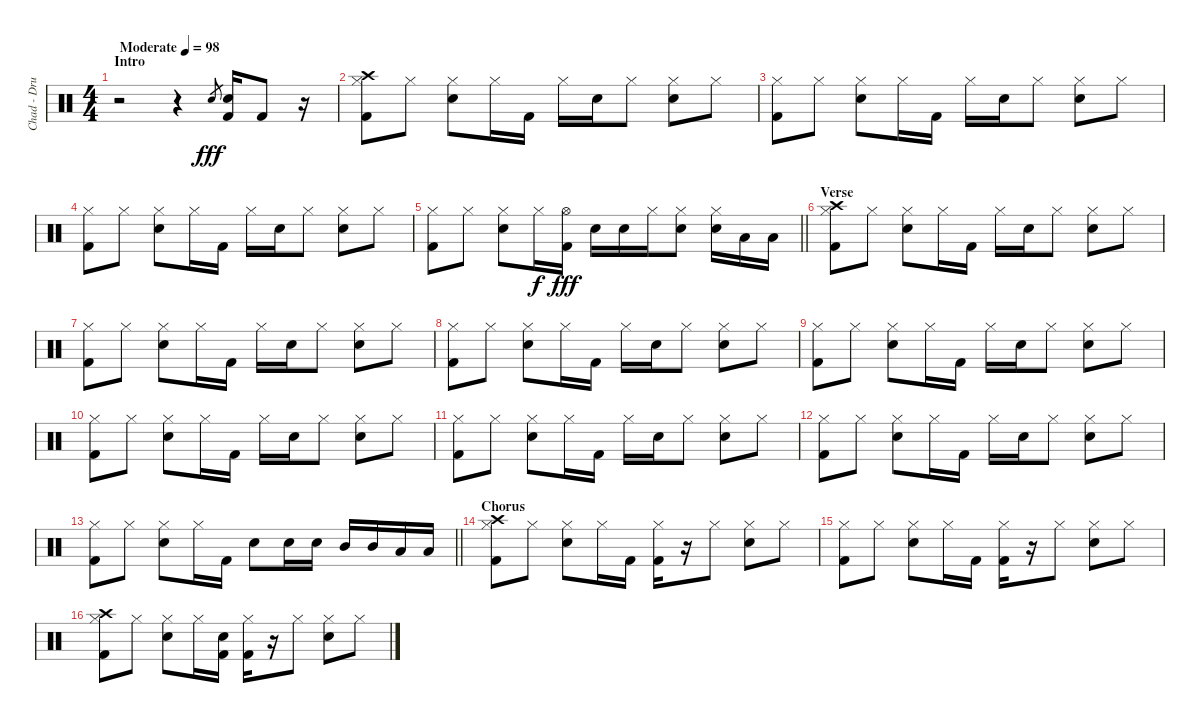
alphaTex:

\track ("Chad - Drums" "Chad - Dru") {instrument percussion}
\staff {score}
\articulation defaults
\ts (4 4)
\section ("" "Intro")
\tempo (98 "Moderate")
\clef neutral
\ks c
r.2{dy fff} r.4 "Snare (hit) 2".8{gr} ("Snare (hit) 2" "Kick (hit) 2").16 "Kick (hit) 2".8 r.16 |
("Hi-Hat (closed)" "Crash high (hit)" "Kick (hit) 2").8 "Hi-Hat (closed)".8 ("Snare (hit) 2" "Hi-Hat (closed)").8 "Hi-Hat (closed)".16 "Kick (hit) 2".16 "Hi-Hat (closed)".16 "Snare (hit) 2".16 "Hi-Hat (closed)".8 ("Snare (hit) 2" "Hi-Hat (closed)").8 "Hi-Hat (closed)".8 |
("Hi-Hat (closed)" "Kick (hit) 2").8 "Hi-Hat (closed)".8 ("Snare (hit) 2" "Hi-Hat (closed)").8 "Hi-Hat (closed)".16 "Kick (hit) 2".16 "Hi-Hat (closed)".16 "Snare (hit) 2".16 "Hi-Hat (closed)".8 ("Snare (hit) 2" "Hi-Hat (closed)").8 "Hi-Hat (closed)".8 |
("Hi-Hat (closed)" "Kick (hit) 2").8 "Hi-Hat (closed)".8 ("Snare (hit) 2" "Hi-Hat (closed)").8 "Hi-Hat (closed)".16 "Kick (hit) 2".16 "Hi-Hat (closed)".16 "Snare (hit) 2".16 "Hi-Hat (closed)".8 ("Snare (hit) 2" "Hi-Hat (closed)").8 "Hi-Hat (closed)".8 |
\barLineRight lightlight
("Hi-Hat (closed)" "Kick (hit) 2").8 "Hi-Hat (closed)".8 ("Snare (hit) 2" "Hi-Hat (closed)").8 "Hi-Hat (closed)".16{dy f} ("Hi-Hat (open)" "Kick (hit) 2").16{dy fff} "Snare (hit) 2".16 "Snare (hit) 2".16 "Hi-Hat (closed)".16 ("Snare (hit) 2" "Hi-Hat (closed)").8 ("Snare (hit) 2" "Hi-Hat (closed)").16 "Low Tom (hit)".16 "Low Tom (hit)".16 |
\section ("" "Verse")
("Hi-Hat (closed)" "Crash high (hit)" "Kick (hit) 2").8 "Hi-Hat (closed)".8 ("Snare (hit) 2" "Hi-Hat (closed)").8 "Hi-Hat (closed)".16 "Kick (hit) 2".16 "Hi-Hat (closed)".16 "Snare (hit) 2".16 "Hi-Hat (closed)".8 ("Snare (hit) 2" "Hi-Hat (closed)").8 "Hi-Hat (closed)".8 |
("Hi-Hat (closed)" "Kick (hit) 2").8 "Hi-Hat (closed)".8 ("Snare (hit) 2" "Hi-Hat (closed)").8 "Hi-Hat (closed)".16 "Kick (hit) 2".16 "Hi-Hat (closed)".16 "Snare (hit) 2".16 "Hi-Hat (closed)".8 ("Snare (hit) 2" "Hi-Hat (closed)").8 "Hi-Hat (closed)".8 |
("Hi-Hat (closed)" "Kick (hit) 2").8 "Hi-Hat (closed)".8 ("Snare (hit) 2" "Hi-Hat (closed)").8 "Hi-Hat (closed)".16 "Kick (hit) 2".16 "Hi-Hat (closed)".16 "Snare (hit) 2".16 "Hi-Hat (closed)".8 ("Snare (hit) 2" "Hi-Hat (closed)").8 "Hi-Hat (closed)".8 |
("Hi-Hat (closed)" "Kick (hit) 2").8 "Hi-Hat (closed)".8 ("Snare (hit) 2" "Hi-Hat (closed)").8 "Hi-Hat (closed)".16 "Kick (hit) 2".16 "Hi-Hat (closed)".16 "Snare (hit) 2".16 "Hi-Hat (closed)".8 ("Snare (hit) 2" "Hi-Hat (closed)").8 "Hi-Hat (closed)".8 |
("Hi-Hat (closed)" "Kick (hit) 2").8 "Hi-Hat (closed)".8 ("Snare (hit) 2" "Hi-Hat (closed)").8 "Hi-Hat (closed)".16 "Kick (hit) 2".16 "Hi-Hat (closed)".16 "Snare (hit) 2".16 "Hi-Hat (closed)".8 ("Snare (hit) 2" "Hi-Hat (closed)").8 "Hi-Hat (closed)".8 |
("Hi-Hat (closed)" "Kick (hit) 2").8 "Hi-Hat (closed)".8 ("Snare (hit) 2" "Hi-Hat (closed)").8 "Hi-Hat (closed)".16 "Kick (hit) 2".16 "Hi-Hat (closed)".16 "Snare (hit) 2".16 "Hi-Hat (closed)".8 ("Snare (hit) 2" "Hi-Hat (closed)").8 "Hi-Hat (closed)".8 |
("Hi-Hat (closed)" "Kick (hit) 2").8 "Hi-Hat (closed)".8 ("Snare (hit) 2" "Hi-Hat (closed)").8 "Hi-Hat (closed)".16 "Kick (hit) 2".16 "Hi-Hat (closed)".16 "Snare (hit) 2".16 "Hi-Hat (closed)".8 ("Snare (hit) 2" "Hi-Hat (closed)").8 "Hi-Hat (closed)".8 |
\barLineRight lightlight
("Hi-Hat (closed)" "Kick (hit) 2").8 "Hi-Hat (closed)".8 ("Snare (hit) 2" "Hi-Hat (closed)").8 "Hi-Hat (closed)".16 "Kick (hit) 2".16 "Snare (hit) 2".8 "Snare (hit) 2".16 "Snare (hit) 2".16 "Mid Tom (hit)".16 "Mid Tom (hit)".16 "Low Tom (hit)".16 "Low Tom (hit)".16 |
\section ("" "Chorus")
("Hi-Hat (closed)" "Crash high (hit)" "Kick (hit) 2").8 "Hi-Hat (closed)".8 ("Snare (hit) 2" "Hi-Hat (closed)").8 "Hi-Hat (closed)".16 "Kick (hit) 2".16 ("Hi-Hat (closed)" "Kick (hit) 2").16 r.16 "Hi-Hat (closed)".8 ("Snare (hit) 2" "Hi-Hat (closed)").8 "Hi-Hat (closed)".8 |
("Hi-Hat (closed)" "Kick (hit) 2").8 "Hi-Hat (closed)".8 ("Snare (hit) 2" "Hi-Hat (closed)").8 "Hi-Hat (closed)".16 "Kick (hit) 2".16 ("Hi-Hat (closed)" "Kick (hit) 2").16 r.16 "Hi-Hat (closed)".8 ("Snare (hit) 2" "Hi-Hat (closed)").8 "Hi-Hat (closed)".8 |
("Hi-Hat (closed)" "Crash high (hit)" "Kick (hit) 2").8 "Hi-Hat (closed)".8 ("Snare (hit) 2" "Hi-Hat (closed)").8 "Hi-Hat (closed)".16 ("Snare (hit) 2" "Kick (hit) 2").16 ("Hi-Hat (closed)" "Kick (hit) 2").16 r.16 "Hi-Hat (closed)".8 ("Snare (hit) 2" "Hi-Hat (closed)").8 "Hi-Hat (closed)".8
